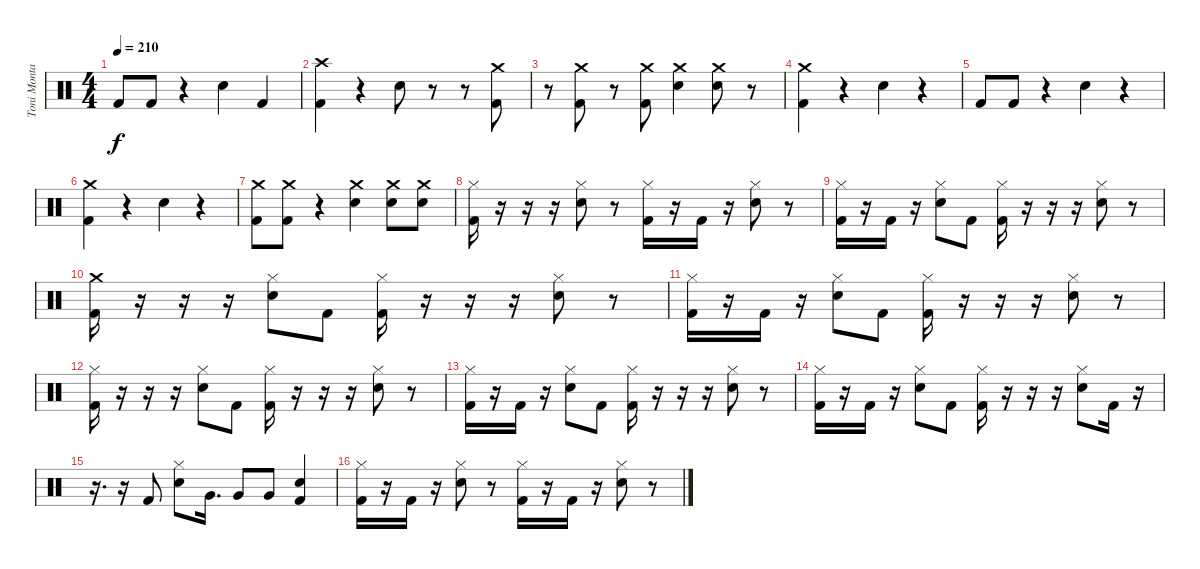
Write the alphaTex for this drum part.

\track ("Toni Montalvo" "Toni Monta") {solo instrument percussion}
\staff {score}
\articulation defaults
\ts (4 4)
\tempo 210
\clef neutral
\ks c "Kick (hit) 2".8{dy f} "Kick (hit) 2".8
r.4 "Electric Snare (hit)".4 "Kick (hit) 2".4 |
("Kick (hit) 2" "Crash high (hit)").4 r.4 "Electric Snare (hit)".8 r.8 r.8 ("Kick (hit) 2" "Crash medium (hit)").8 |
r.8 ("Kick (hit) 2" "Crash medium (hit)").8 r.8 ("Kick (hit) 2" "Crash medium (hit)").8 ("Electric Snare (hit)" "Crash medium (hit)").4 ("Electric Snare (hit)" "Crash medium (hit)").8 r.8 |
("Kick (hit) 2" "Crash medium (hit)").4 r.4 "Electric Snare (hit)".4 r.4 |
"Kick (hit) 2".8 "Kick (hit) 2".8 r.4 "Electric Snare (hit)".4 r.4 |
("Kick (hit) 2" "Crash medium (hit)").4 r.4 "Electric Snare (hit)".4 r.4 |
("Kick (hit) 2" "Crash medium (hit)").8 ("Kick (hit) 2" "Crash medium (hit)").8 r.4 ("Electric Snare (hit)" "Crash medium (hit)").4 ("Electric Snare (hit)" "Crash medium (hit)").8 ("Electric Snare (hit)" "Crash medium (hit)").8 |
("Kick (hit) 2" "Hi-Hat (closed)").16 r.16 r.16 r.16 ("Electric Snare (hit)" "Hi-Hat (closed)").8 r.8 ("Kick (hit) 2" "Hi-Hat (closed)").16 r.16 "Kick (hit) 2".16 r.16 ("Electric Snare (hit)" "Hi-Hat (closed)").8 r.8 |
("Kick (hit) 2" "Hi-Hat (closed)").16 r.16 "Kick (hit) 2".16 r.16 ("Electric Snare (hit)" "Hi-Hat (closed)").8 "Kick (hit) 2".8 ("Kick (hit) 2" "Hi-Hat (closed)").16 r.16 r.16 r.16 ("Electric Snare (hit)" "Hi-Hat (closed)").8 r.8 |
("Kick (hit) 2" "Crash medium (hit)").16 r.16 r.16 r.16 ("Electric Snare (hit)" "Hi-Hat (closed)").8 "Kick (hit) 2".8 ("Kick (hit) 2" "Hi-Hat (closed)").16 r.16 r.16 r.16 ("Electric Snare (hit)" "Hi-Hat (closed)").8 r.8 |
("Kick (hit) 2" "Hi-Hat (closed)").16 r.16 "Kick (hit) 2".16 r.16 ("Electric Snare (hit)" "Hi-Hat (closed)").8 "Kick (hit) 2".8 ("Kick (hit) 2" "Hi-Hat (closed)").16 r.16 r.16 r.16 ("Electric Snare (hit)" "Hi-Hat (closed)").8 r.8 |
("Kick (hit) 2" "Hi-Hat (closed)").16 r.16 r.16 r.16 ("Electric Snare (hit)" "Hi-Hat (closed)").8 "Kick (hit) 2".8 ("Kick (hit) 2" "Hi-Hat (closed)").16 r.16 r.16 r.16 ("Electric Snare (hit)" "Hi-Hat (closed)").8 r.8 |
("Kick (hit) 2" "Hi-Hat (closed)").16 r.16 "Kick (hit) 2".16 r.16 ("Electric Snare (hit)" "Hi-Hat (closed)").8 "Kick (hit) 2".8 ("Kick (hit) 2" "Hi-Hat (closed)").16 r.16 r.16 r.16 ("Electric Snare (hit)" "Hi-Hat (closed)").8 r.8 |
("Kick (hit) 2" "Hi-Hat (closed)").16 r.16 "Kick (hit) 2".16 r.16 ("Electric Snare (hit)" "Hi-Hat (closed)").8 "Kick (hit) 2".8 ("Kick (hit) 2" "Hi-Hat (closed)").16 r.16 r.16 r.16 ("Electric Snare (hit)" "Hi-Hat (closed)").8 "Kick (hit) 2".16 r.16 |
r.16{d} r.16 "Kick (hit) 2".8 ("Electric Snare (hit)" "Hi-Hat (closed)").8 "Very Low Tom (hit)".16{d} "Very Low Tom (hit)".8 "Very Low Tom (hit)".8 ("Electric Snare (hit)" "Kick (hit) 2").4 |
("Kick (hit) 2" "Hi-Hat (closed)").16 r.16 "Kick (hit) 2".16 r.16 ("Electric Snare (hit)" "Hi-Hat (closed)").8 r.8 ("Kick (hit) 2" "Hi-Hat (closed)").16 r.16 "Kick (hit) 2".16 r.16 ("Electric Snare (hit)" "Hi-Hat (closed)").8 r.8
